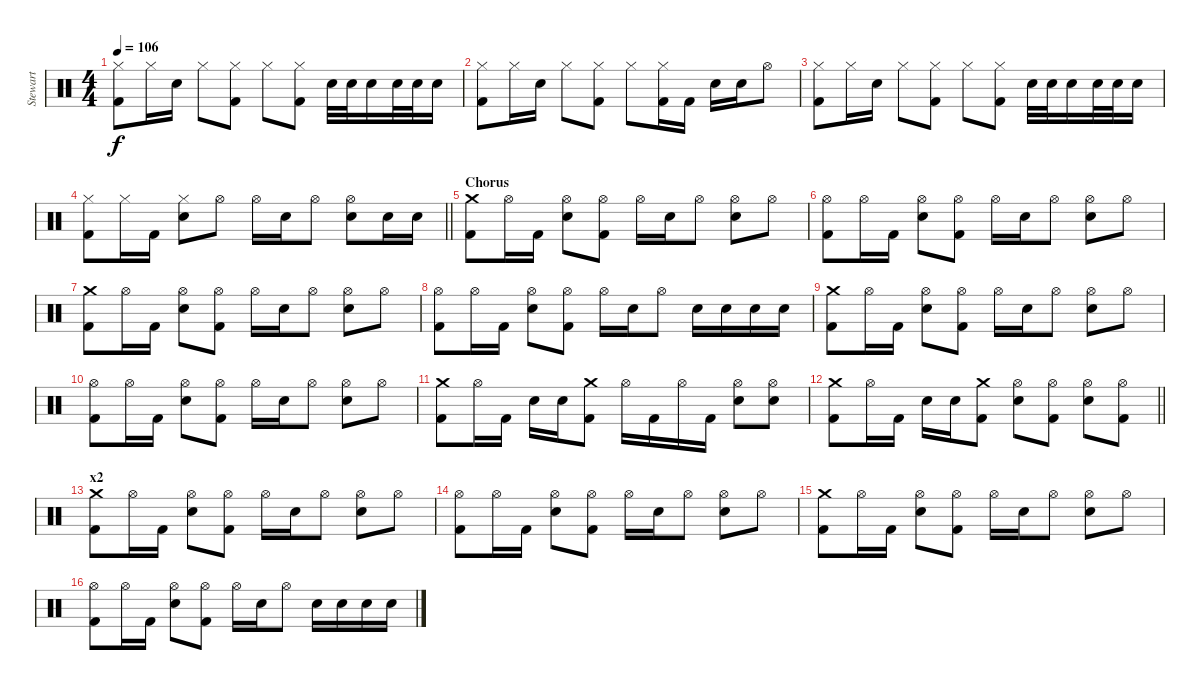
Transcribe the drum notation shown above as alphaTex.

\track ("Stewart" "Stewart") {instrument percussion}
\staff {score}
\articulation defaults
\ts (4 4)
\tempo 106
\clef neutral
\ks c
("Hi-Hat (closed)" "Kick (hit) 2").8{dy f} "Hi-Hat (closed)".16 "Electric Snare (hit)".16 "Hi-Hat (closed)".8 ("Hi-Hat (closed)" "Kick (hit) 2").8 "Hi-Hat (closed)".8 ("Hi-Hat (closed)" "Kick (hit) 2").8 "Electric Snare (hit)".32 "Electric Snare (hit)".32 "Electric Snare (hit)".16 "Electric Snare (hit)".32 "Electric Snare (hit)".32 "Electric Snare (hit)".16 |
("Hi-Hat (closed)" "Kick (hit) 2").8 "Hi-Hat (closed)".16 "Electric Snare (hit)".16 "Hi-Hat (closed)".8 ("Hi-Hat (closed)" "Kick (hit) 2").8 "Hi-Hat (closed)".8 ("Hi-Hat (closed)" "Kick (hit) 2").16 "Kick (hit) 2".16 "Electric Snare (hit)".16 "Electric Snare (hit)".16 "Hi-Hat (open)".8 |
("Hi-Hat (closed)" "Kick (hit) 2").8 "Hi-Hat (closed)".16 "Electric Snare (hit)".16 "Hi-Hat (closed)".8 ("Hi-Hat (closed)" "Kick (hit) 2").8 "Hi-Hat (closed)".8 ("Hi-Hat (closed)" "Kick (hit) 2").8 "Electric Snare (hit)".32 "Electric Snare (hit)".32 "Electric Snare (hit)".16 "Electric Snare (hit)".32 "Electric Snare (hit)".32 "Electric Snare (hit)".16 |
\barLineRight lightlight
("Hi-Hat (closed)" "Kick (hit) 2").8 "Hi-Hat (closed)".16 "Kick (hit) 2".16 ("Hi-Hat (closed)" "Electric Snare (hit)").8 "Hi-Hat (open)".8 "Hi-Hat (open)".16 "Electric Snare (hit)".16 "Hi-Hat (open)".8 ("Hi-Hat (open)" "Electric Snare (hit)").8 "Electric Snare (hit)".16 "Electric Snare (hit)".16 |
\section ("" "Chorus")
("Crash medium (hit)" "Kick (hit) 2").8 "Hi-Hat (open)".16 "Kick (hit) 2".16 ("Hi-Hat (open)" "Electric Snare (hit)").8 ("Hi-Hat (open)" "Kick (hit) 2").8 "Hi-Hat (open)".16 "Electric Snare (hit)".16 "Hi-Hat (open)".8 ("Hi-Hat (open)" "Electric Snare (hit)").8 "Hi-Hat (open)".8 |
("Hi-Hat (open)" "Kick (hit) 2").8 "Hi-Hat (open)".16 "Kick (hit) 2".16 ("Hi-Hat (open)" "Electric Snare (hit)").8 ("Hi-Hat (open)" "Kick (hit) 2").8 "Hi-Hat (open)".16 "Electric Snare (hit)".16 "Hi-Hat (open)".8 ("Hi-Hat (open)" "Electric Snare (hit)").8 "Hi-Hat (open)".8 |
("Crash medium (hit)" "Kick (hit) 2").8 "Hi-Hat (open)".16 "Kick (hit) 2".16 ("Hi-Hat (open)" "Electric Snare (hit)").8 ("Hi-Hat (open)" "Kick (hit) 2").8 "Hi-Hat (open)".16 "Electric Snare (hit)".16 "Hi-Hat (open)".8 ("Hi-Hat (open)" "Electric Snare (hit)").8 "Hi-Hat (open)".8 |
("Hi-Hat (open)" "Kick (hit) 2").8 "Hi-Hat (open)".16 "Kick (hit) 2".16 ("Hi-Hat (open)" "Electric Snare (hit)").8 ("Hi-Hat (open)" "Kick (hit) 2").8 "Hi-Hat (open)".16 "Electric Snare (hit)".16 "Hi-Hat (open)".8 "Electric Snare (hit)".16 "Electric Snare (hit)".16 "Electric Snare (hit)".16 "Electric Snare (hit)".16 |
("Crash medium (hit)" "Kick (hit) 2").8 "Hi-Hat (open)".16 "Kick (hit) 2".16 ("Hi-Hat (open)" "Electric Snare (hit)").8 ("Hi-Hat (open)" "Kick (hit) 2").8 "Hi-Hat (open)".16 "Electric Snare (hit)".16 "Hi-Hat (open)".8 ("Hi-Hat (open)" "Electric Snare (hit)").8 "Hi-Hat (open)".8 |
("Hi-Hat (open)" "Kick (hit) 2").8 "Hi-Hat (open)".16 "Kick (hit) 2".16 ("Hi-Hat (open)" "Electric Snare (hit)").8 ("Hi-Hat (open)" "Kick (hit) 2").8 "Hi-Hat (open)".16 "Electric Snare (hit)".16 "Hi-Hat (open)".8 ("Hi-Hat (open)" "Electric Snare (hit)").8 "Hi-Hat (open)".8 |
("Crash medium (hit)" "Kick (hit) 2").8 "Hi-Hat (open)".16 "Kick (hit) 2".16 "Electric Snare (hit)".16 "Electric Snare (hit)".16 ("Crash medium (hit)" "Kick (hit) 2").8 "Hi-Hat (open)".16 "Kick (hit) 2".16 "Hi-Hat (open)".16 "Kick (hit) 2".16 ("Hi-Hat (open)" "Electric Snare (hit)").8 ("Hi-Hat (open)" "Electric Snare (hit)").8 |
\barLineRight lightlight
("Crash medium (hit)" "Kick (hit) 2").8 "Hi-Hat (open)".16 "Kick (hit) 2".16 "Electric Snare (hit)".16 "Electric Snare (hit)".16 ("Crash medium (hit)" "Kick (hit) 2").8 ("Hi-Hat (open)" "Electric Snare (hit)").8 ("Hi-Hat (open)" "Kick (hit) 2").8 ("Hi-Hat (open)" "Electric Snare (hit)").8 ("Hi-Hat (open)" "Kick (hit) 2").8 |
\section ("" "x2")
("Crash medium (hit)" "Kick (hit) 2").8 "Hi-Hat (open)".16 "Kick (hit) 2".16 ("Hi-Hat (open)" "Electric Snare (hit)").8 ("Hi-Hat (open)" "Kick (hit) 2").8 "Hi-Hat (open)".16 "Electric Snare (hit)".16 "Hi-Hat (open)".8 ("Hi-Hat (open)" "Electric Snare (hit)").8 "Hi-Hat (open)".8 |
("Hi-Hat (open)" "Kick (hit) 2").8 "Hi-Hat (open)".16 "Kick (hit) 2".16 ("Hi-Hat (open)" "Electric Snare (hit)").8 ("Hi-Hat (open)" "Kick (hit) 2").8 "Hi-Hat (open)".16 "Electric Snare (hit)".16 "Hi-Hat (open)".8 ("Hi-Hat (open)" "Electric Snare (hit)").8 "Hi-Hat (open)".8 |
("Crash medium (hit)" "Kick (hit) 2").8 "Hi-Hat (open)".16 "Kick (hit) 2".16 ("Hi-Hat (open)" "Electric Snare (hit)").8 ("Hi-Hat (open)" "Kick (hit) 2").8 "Hi-Hat (open)".16 "Electric Snare (hit)".16 "Hi-Hat (open)".8 ("Hi-Hat (open)" "Electric Snare (hit)").8 "Hi-Hat (open)".8 |
("Hi-Hat (open)" "Kick (hit) 2").8 "Hi-Hat (open)".16 "Kick (hit) 2".16 ("Hi-Hat (open)" "Electric Snare (hit)").8 ("Hi-Hat (open)" "Kick (hit) 2").8 "Hi-Hat (open)".16 "Electric Snare (hit)".16 "Hi-Hat (open)".8 "Electric Snare (hit)".16 "Electric Snare (hit)".16 "Electric Snare (hit)".16 "Electric Snare (hit)".16
